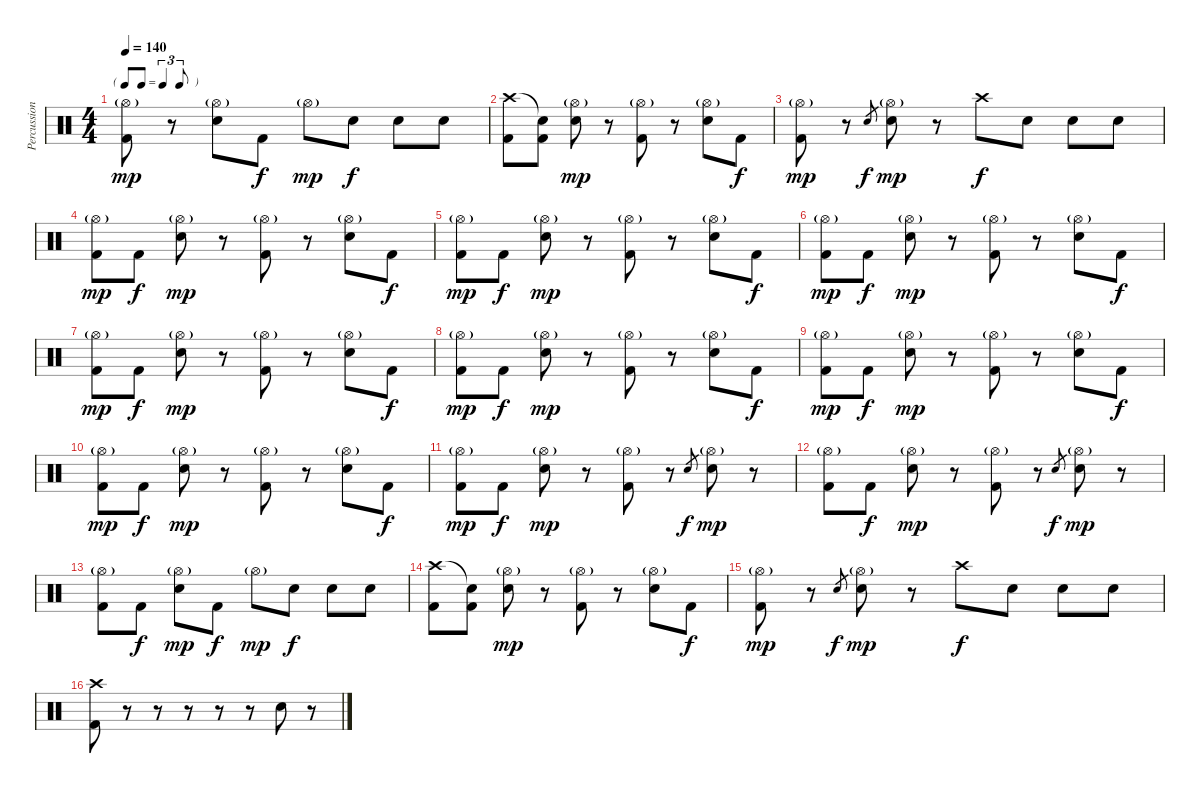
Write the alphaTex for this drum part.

\track ("Percussion" "Percussion") {instrument percussion}
\staff {score}
\articulation defaults
\ts (4 4)
\tf triplet8th
\tempo 140
\clef neutral
\ks c
("Hi-Hat (open)"{g} "Kick (hit) 2").8{dy mp} r.8 ("Hi-Hat (open)"{g} "Snare (hit) 2").8 "Kick (hit) 2".8{dy f} "Hi-Hat (open)"{g}.8{dy mp} "Snare (hit) 2".8{dy f} "Snare (hit) 2".8 "Snare (hit) 2".8 |
("Crash high (hit)" "Kick (hit) 2").8 ("Snare (hit)"{t} "Kick (hit) 2").8 ("Hi-Hat (open)"{g} "Snare (hit) 2").8{dy mp} r.8 ("Hi-Hat (open)"{g} "Kick (hit) 2").8 r.8 ("Hi-Hat (open)"{g} "Snare (hit) 2").8 "Kick (hit) 2".8{dy f} |
("Hi-Hat (open)"{g} "Kick (hit) 2").8{dy mp} r.8 "Snare (hit) 2".8{gr dy f} ("Hi-Hat (open)"{g} "Snare (hit) 2").8{dy mp} r.8 "Crash high (hit)".8{dy f} "Snare (hit) 2".8 "Snare (hit) 2".8 "Snare (hit) 2".8 |
("Hi-Hat (open)"{g} "Kick (hit) 2").8{dy mp} "Kick (hit) 2".8{dy f} ("Hi-Hat (open)"{g} "Snare (hit) 2").8{dy mp} r.8 ("Hi-Hat (open)"{g} "Kick (hit) 2").8 r.8 ("Hi-Hat (open)"{g} "Snare (hit) 2").8 "Kick (hit) 2".8{dy f} |
("Hi-Hat (open)"{g} "Kick (hit) 2").8{dy mp} "Kick (hit) 2".8{dy f} ("Hi-Hat (open)"{g} "Snare (hit) 2").8{dy mp} r.8 ("Hi-Hat (open)"{g} "Kick (hit) 2").8 r.8 ("Hi-Hat (open)"{g} "Snare (hit) 2").8 "Kick (hit) 2".8{dy f} |
("Hi-Hat (open)"{g} "Kick (hit) 2").8{dy mp} "Kick (hit) 2".8{dy f} ("Hi-Hat (open)"{g} "Snare (hit) 2").8{dy mp} r.8 ("Hi-Hat (open)"{g} "Kick (hit) 2").8 r.8 ("Hi-Hat (open)"{g} "Snare (hit) 2").8 "Kick (hit) 2".8{dy f} |
("Hi-Hat (open)"{g} "Kick (hit) 2").8{dy mp} "Kick (hit) 2".8{dy f} ("Hi-Hat (open)"{g} "Snare (hit) 2").8{dy mp} r.8 ("Hi-Hat (open)"{g} "Kick (hit) 2").8 r.8 ("Hi-Hat (open)"{g} "Snare (hit) 2").8 "Kick (hit) 2".8{dy f} |
("Hi-Hat (open)"{g} "Kick (hit) 2").8{dy mp} "Kick (hit) 2".8{dy f} ("Hi-Hat (open)"{g} "Snare (hit) 2").8{dy mp} r.8 ("Hi-Hat (open)"{g} "Kick (hit) 2").8 r.8 ("Hi-Hat (open)"{g} "Snare (hit) 2").8 "Kick (hit) 2".8{dy f} |
("Hi-Hat (open)"{g} "Kick (hit) 2").8{dy mp} "Kick (hit) 2".8{dy f} ("Hi-Hat (open)"{g} "Snare (hit) 2").8{dy mp} r.8 ("Hi-Hat (open)"{g} "Kick (hit) 2").8 r.8 ("Hi-Hat (open)"{g} "Snare (hit) 2").8 "Kick (hit) 2".8{dy f} |
("Hi-Hat (open)"{g} "Kick (hit) 2").8{dy mp} "Kick (hit) 2".8{dy f} ("Hi-Hat (open)"{g} "Snare (hit) 2").8{dy mp} r.8 ("Hi-Hat (open)"{g} "Kick (hit) 2").8 r.8 ("Hi-Hat (open)"{g} "Snare (hit) 2").8 "Kick (hit) 2".8{dy f} |
("Hi-Hat (open)"{g} "Kick (hit) 2").8{dy mp} "Kick (hit) 2".8{dy f} ("Hi-Hat (open)"{g} "Snare (hit) 2").8{dy mp} r.8 ("Hi-Hat (open)"{g} "Kick (hit) 2").8 r.8 "Snare (hit) 2".8{gr dy f} ("Hi-Hat (open)"{g} "Snare (hit) 2").8{dy mp} r.8 |
("Hi-Hat (open)"{g} "Kick (hit) 2").8 "Kick (hit) 2".8{dy f} ("Hi-Hat (open)"{g} "Snare (hit) 2").8{dy mp} r.8 ("Hi-Hat (open)"{g} "Kick (hit) 2").8 r.8 "Snare (hit) 2".8{gr dy f} ("Hi-Hat (open)"{g} "Snare (hit) 2").8{dy mp} r.8 |
("Hi-Hat (open)"{g} "Kick (hit) 2").8 "Kick (hit) 2".8{dy f} ("Hi-Hat (open)"{g} "Snare (hit) 2").8{dy mp} "Kick (hit) 2".8{dy f} "Hi-Hat (open)"{g}.8{dy mp} "Snare (hit) 2".8{dy f} "Snare (hit) 2".8 "Snare (hit) 2".8 |
("Crash high (hit)" "Kick (hit) 2").8 ("Snare (hit)"{t} "Kick (hit) 2").8 ("Hi-Hat (open)"{g} "Snare (hit) 2").8{dy mp} r.8 ("Hi-Hat (open)"{g} "Kick (hit) 2").8 r.8 ("Hi-Hat (open)"{g} "Snare (hit) 2").8 "Kick (hit) 2".8{dy f} |
("Hi-Hat (open)"{g} "Kick (hit) 2").8{dy mp} r.8 "Snare (hit) 2".8{gr dy f} ("Hi-Hat (open)"{g} "Snare (hit) 2").8{dy mp} r.8 "Crash high (hit)".8{dy f} "Snare (hit) 2".8 "Snare (hit) 2".8 "Snare (hit) 2".8 |
("Crash high (hit)" "Kick (hit) 2").8 r.8 r.8 r.8 r.8 r.8 "Snare (hit) 2".8 r.8
